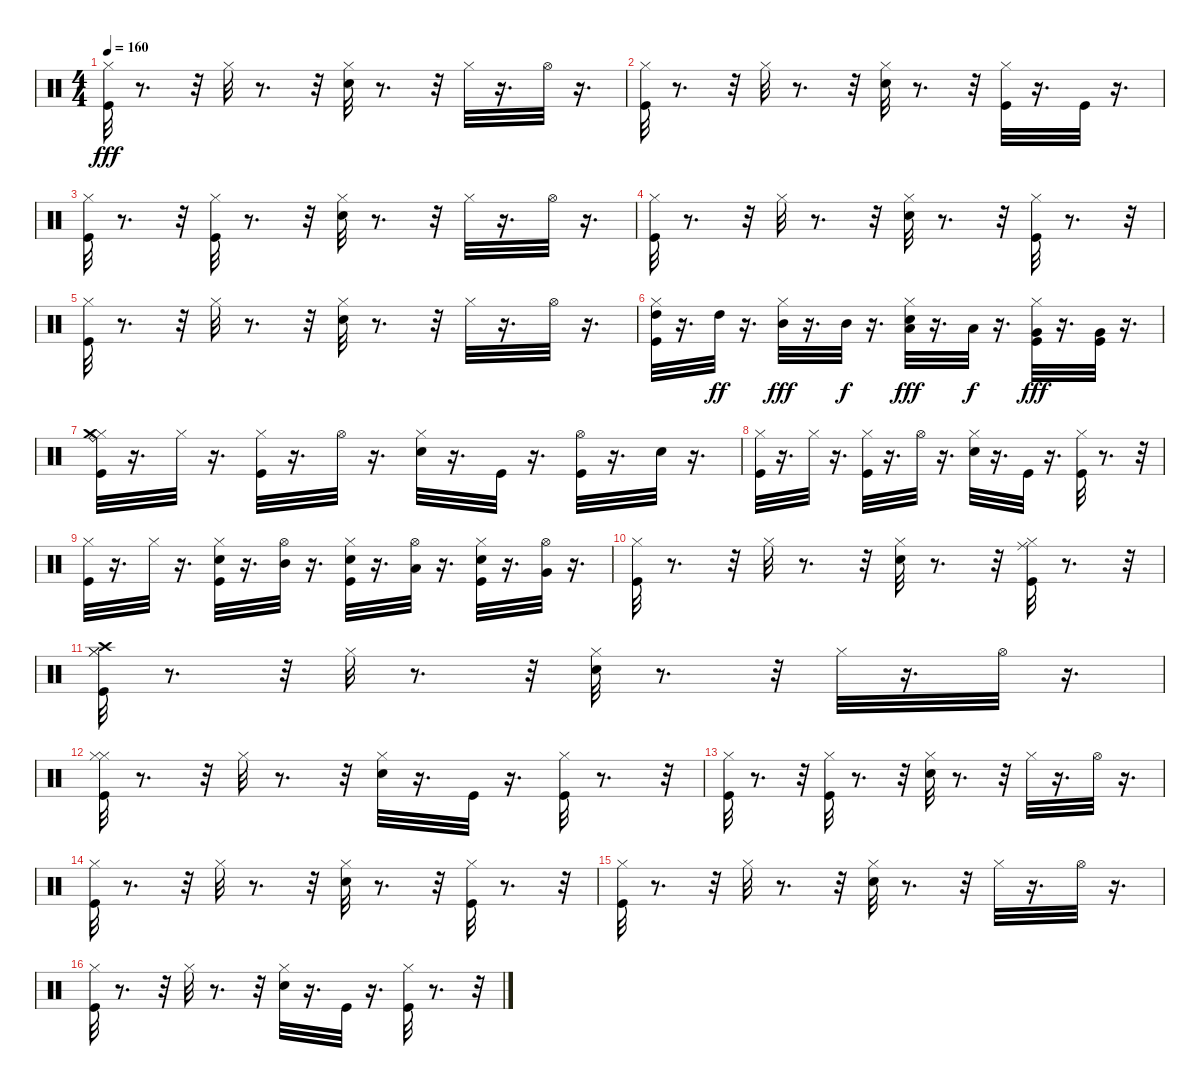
\track "" {instrument percussion}
\staff {score}
\articulation defaults
\ts (4 4)
\tempo 160
\clef neutral
\ks c
("Hi-Hat (closed)" "Kick (hit)").32{dy fff} r.8{d} r.32 "Hi-Hat (closed)".32 r.8{d} r.32 ("Hi-Hat (closed)" "Electric Snare (hit)").32 r.8{d} r.32 "Hi-Hat (closed)".32 r.16{d} "Hi-Hat (open)".32 r.16{d} |
("Hi-Hat (closed)" "Kick (hit)").32 r.8{d} r.32 "Hi-Hat (closed)".32 r.8{d} r.32 ("Hi-Hat (closed)" "Electric Snare (hit)").32 r.8{d} r.32 ("Hi-Hat (closed)" "Kick (hit)").32 r.16{d} "Kick (hit)".32 r.16{d} |
("Hi-Hat (closed)" "Kick (hit)").32 r.8{d} r.32 ("Hi-Hat (closed)" "Kick (hit)").32 r.8{d} r.32 ("Hi-Hat (closed)" "Electric Snare (hit)").32 r.8{d} r.32 "Hi-Hat (closed)".32 r.16{d} "Hi-Hat (open)".32 r.16{d} |
("Hi-Hat (closed)" "Kick (hit)").32 r.8{d} r.32 "Hi-Hat (closed)".32 r.8{d} r.32 ("Hi-Hat (closed)" "Electric Snare (hit)").32 r.8{d} r.32 ("Hi-Hat (closed)" "Kick (hit)").32 r.8{d} r.32 |
("Hi-Hat (closed)" "Kick (hit)").32 r.8{d} r.32 "Hi-Hat (closed)".32 r.8{d} r.32 ("Hi-Hat (closed)" "Electric Snare (hit)").32 r.8{d} r.32 "Hi-Hat (closed)".32 r.16{d} "Hi-Hat (open)".32 r.16{d} |
("Hi-Hat (closed)" "Kick (hit)" "High Tom (hit)").32 r.16{d} "High Tom (hit)".32{dy ff} r.16{d} ("Hi-Hat (closed)" "Mid Tom (hit)").32{dy fff} r.16{d} "Mid Tom (hit)".32{dy f} r.16{d} ("Hi-Hat (closed)" "Electric Snare (hit)" "Low Tom (hit)").32{dy fff} r.16{d} "Low Tom (hit)".32{dy f} r.16{d} ("Kick (hit)" "Hi-Hat (closed)" "Very Low Tom (hit)").32{dy fff} r.16{d} ("Kick (hit)" "Very Low Tom (hit)").32 r.16{d} |
("Hi-Hat (closed)" "Kick (hit)" "Crash medium (hit)" "Ride (bell)").32 r.16{d} "Hi-Hat (closed)".32 r.16{d} ("Hi-Hat (closed)" "Kick (hit)").32 r.16{d} "Hi-Hat (open)".32 r.16{d} ("Hi-Hat (closed)" "Electric Snare (hit)").32 r.16{d} "Kick (hit)".32 r.16{d} ("Hi-Hat (open)" "Kick (hit)").32 r.16{d} "Electric Snare (hit)".32 r.16{d} |
("Hi-Hat (closed)" "Kick (hit)").32 r.16{d} "Hi-Hat (closed)".32 r.16{d} ("Hi-Hat (closed)" "Kick (hit)").32 r.16{d} "Hi-Hat (open)".32 r.16{d} ("Hi-Hat (closed)" "Electric Snare (hit)").32 r.16{d} "Kick (hit)".32 r.16{d} ("Hi-Hat (closed)" "Kick (hit)").32 r.8{d} r.32 |
("Hi-Hat (closed)" "Kick (hit)").32 r.16{d} "Hi-Hat (closed)".32 r.16{d} ("Electric Snare (hit)" "Hi-Hat (closed)" "Kick (hit)").32 r.16{d} ("Hi-Hat (open)" "Mid Tom (hit)").32 r.16{d} ("Kick (hit)" "Hi-Hat (closed)" "Electric Snare (hit)").32 r.16{d} ("Hi-Hat (open)" "Low Tom (hit)").32 r.16{d} ("Hi-Hat (closed)" "Kick (hit)" "Electric Snare (hit)").32 r.16{d} ("Hi-Hat (open)" "Very Low Tom (hit)").32 r.16{d} |
("Hi-Hat (closed)" "Kick (hit)").32 r.8{d} r.32 "Hi-Hat (closed)".32 r.8{d} r.32 ("Hi-Hat (closed)" "Electric Snare (hit)").32 r.8{d} r.32 ("Kick (hit)" "Ride (middle)" "Hi-Hat (closed)").32 r.8{d} r.32 |
("Hi-Hat (closed)" "Kick (hit)" "Crash high (hit)" "Hi-Hat (closed)").32 r.8{d} r.32 "Hi-Hat (closed)".32 r.8{d} r.32 ("Electric Snare (hit)" "Hi-Hat (closed)").32 r.8{d} r.32 "Hi-Hat (closed)".32 r.16{d} "Hi-Hat (open)".32 r.16{d} |
("Hi-Hat (closed)" "Kick (hit)" "Hi-Hat (closed)").32 r.8{d} r.32 "Hi-Hat (closed)".32 r.8{d} r.32 ("Electric Snare (hit)" "Hi-Hat (closed)").32 r.16{d} "Kick (hit)".32 r.16{d} ("Kick (hit)" "Hi-Hat (closed)").32 r.8{d} r.32 |
("Hi-Hat (closed)" "Kick (hit)").32 r.8{d} r.32 ("Kick (hit)" "Hi-Hat (closed)").32 r.8{d} r.32 ("Hi-Hat (closed)" "Electric Snare (hit)").32 r.8{d} r.32 "Hi-Hat (closed)".32 r.16{d} "Hi-Hat (open)".32 r.16{d} |
("Kick (hit)" "Hi-Hat (closed)").32 r.8{d} r.32 "Hi-Hat (closed)".32 r.8{d} r.32 ("Hi-Hat (closed)" "Electric Snare (hit)").32 r.8{d} r.32 ("Kick (hit)" "Hi-Hat (closed)").32 r.8{d} r.32 |
("Hi-Hat (closed)" "Kick (hit)").32 r.8{d} r.32 "Hi-Hat (closed)".32 r.8{d} r.32 ("Hi-Hat (closed)" "Electric Snare (hit)").32 r.8{d} r.32 "Hi-Hat (closed)".32 r.16{d} "Hi-Hat (open)".32 r.16{d} |
("Hi-Hat (closed)" "Kick (hit)").32 r.8{d} r.32 "Hi-Hat (closed)".32 r.8{d} r.32 ("Electric Snare (hit)" "Hi-Hat (closed)").32 r.16{d} "Kick (hit)".32 r.16{d} ("Kick (hit)" "Hi-Hat (closed)").32 r.8{d} r.32
